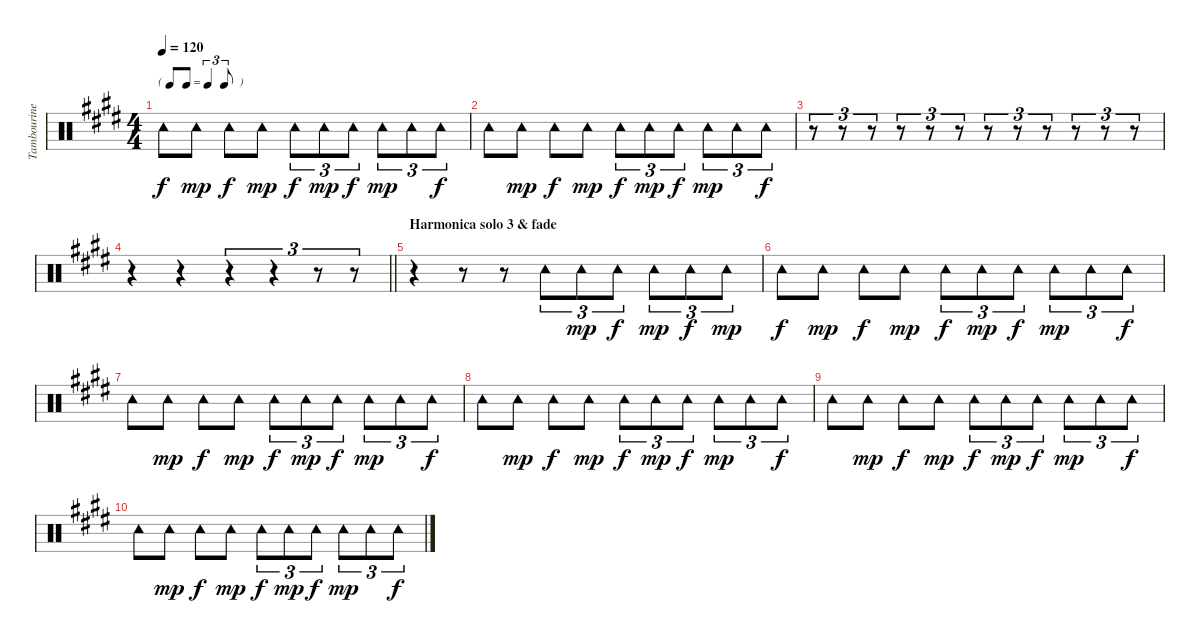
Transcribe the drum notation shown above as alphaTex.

\track ("Tambourine" "Tambourine") {instrument percussion}
\staff {score}
\articulation defaults
\ts (4 4)
\tf triplet8th
\tempo 120
\clef neutral
\ks e "Tambourine (hit)".8{dy f} "Tambourine (hit)".8{dy mp} "Tambourine (hit)".8{dy f} "Tambourine (hit)".8{dy mp} "Tambourine (hit)".8{tu (3 2) dy f} "Tambourine (hit)".8{tu (3 2) dy mp} "Tambourine (hit)".8{tu (3 2) dy f} "Tambourine (hit)".8{tu (3 2) dy mp} "Tambourine (hit)".8{tu (3 2)} "Tambourine (hit)".8{tu (3 2) dy f}
|
"Tambourine (hit)".8 "Tambourine (hit)".8{dy mp} "Tambourine (hit)".8{dy f} "Tambourine (hit)".8{dy mp} "Tambourine (hit)".8{tu (3 2) dy f} "Tambourine (hit)".8{tu (3 2) dy mp} "Tambourine (hit)".8{tu (3 2) dy f} "Tambourine (hit)".8{tu (3 2) dy mp} "Tambourine (hit)".8{tu (3 2)} "Tambourine (hit)".8{tu (3 2) dy f} |
r.8{tu (3 2)} r.8{tu (3 2)} r.8{tu (3 2)} r.8{tu (3 2)} r.8{tu (3 2)} r.8{tu (3 2)} r.8{tu (3 2)} r.8{tu (3 2)} r.8{tu (3 2)} r.8{tu (3 2)} r.8{tu (3 2)} r.8{tu (3 2)} |
\barLineRight lightlight
r.4 r.4 r.4{tu (3 2)} r.4{tu (3 2)} r.8{tu (3 2)} r.8{tu (3 2)} |
\section ("" "Harmonica solo 3 & fade")
r.4 r.8 r.8 "Tambourine (hit)".8{tu (3 2)} "Tambourine (hit)".8{tu (3 2) dy mp} "Tambourine (hit)".8{tu (3 2) dy f} "Tambourine (hit)".8{tu (3 2) dy mp} "Tambourine (hit)".8{tu (3 2) dy f} "Tambourine (hit)".8{tu (3 2) dy mp} |
"Tambourine (hit)".8{dy f} "Tambourine (hit)".8{dy mp} "Tambourine (hit)".8{dy f} "Tambourine (hit)".8{dy mp} "Tambourine (hit)".8{tu (3 2) dy f} "Tambourine (hit)".8{tu (3 2) dy mp} "Tambourine (hit)".8{tu (3 2) dy f} "Tambourine (hit)".8{tu (3 2) dy mp} "Tambourine (hit)".8{tu (3 2)} "Tambourine (hit)".8{tu (3 2) dy f} |
"Tambourine (hit)".8{volume 4} "Tambourine (hit)".8{dy mp} "Tambourine (hit)".8{dy f} "Tambourine (hit)".8{dy mp} "Tambourine (hit)".8{tu (3 2) dy f} "Tambourine (hit)".8{tu (3 2) dy mp} "Tambourine (hit)".8{tu (3 2) dy f} "Tambourine (hit)".8{tu (3 2) dy mp} "Tambourine (hit)".8{tu (3 2)} "Tambourine (hit)".8{tu (3 2) dy f} |
"Tambourine (hit)".8 "Tambourine (hit)".8{dy mp} "Tambourine (hit)".8{dy f} "Tambourine (hit)".8{dy mp} "Tambourine (hit)".8{tu (3 2) dy f} "Tambourine (hit)".8{tu (3 2) dy mp} "Tambourine (hit)".8{tu (3 2) dy f} "Tambourine (hit)".8{tu (3 2) dy mp} "Tambourine (hit)".8{tu (3 2)} "Tambourine (hit)".8{tu (3 2) dy f} |
"Tambourine (hit)".8 "Tambourine (hit)".8{dy mp} "Tambourine (hit)".8{dy f} "Tambourine (hit)".8{dy mp} "Tambourine (hit)".8{tu (3 2) dy f} "Tambourine (hit)".8{tu (3 2) dy mp} "Tambourine (hit)".8{tu (3 2) dy f} "Tambourine (hit)".8{tu (3 2) dy mp} "Tambourine (hit)".8{tu (3 2)} "Tambourine (hit)".8{tu (3 2) dy f} |
"Tambourine (hit)".8 "Tambourine (hit)".8{dy mp} "Tambourine (hit)".8{dy f} "Tambourine (hit)".8{dy mp} "Tambourine (hit)".8{tu (3 2) dy f} "Tambourine (hit)".8{tu (3 2) dy mp} "Tambourine (hit)".8{tu (3 2) dy f} "Tambourine (hit)".8{tu (3 2) dy mp} "Tambourine (hit)".8{tu (3 2)} "Tambourine (hit)".8{tu (3 2) dy f volume 0}
